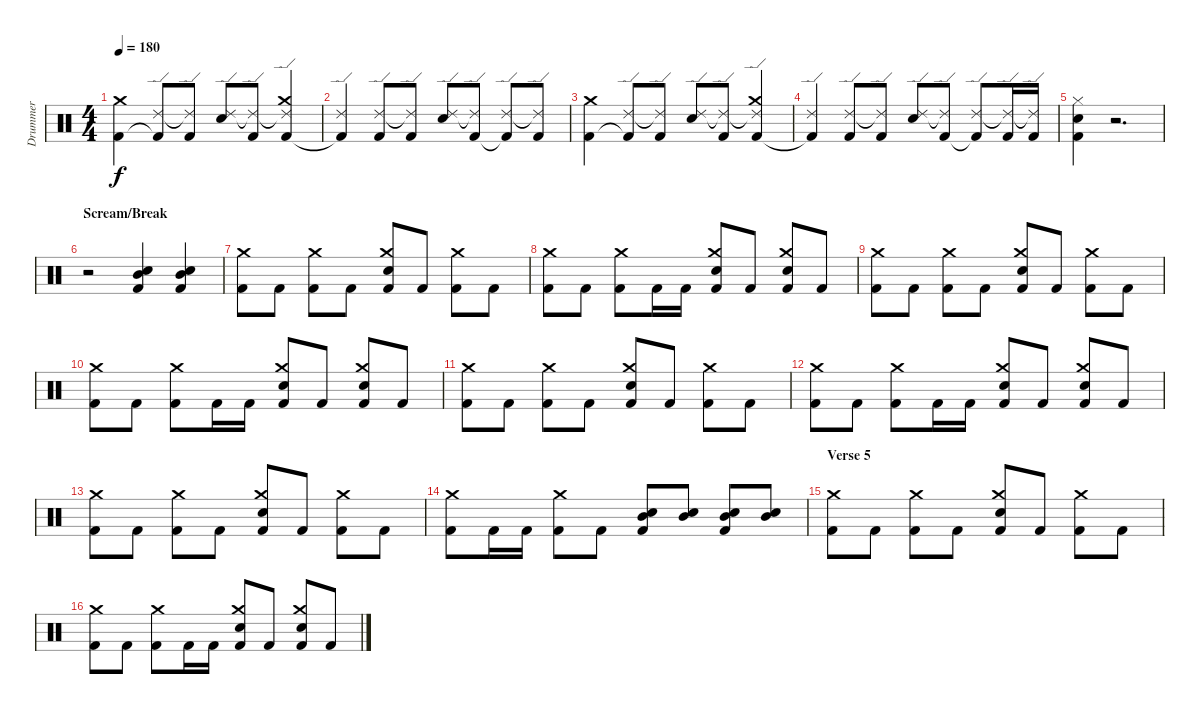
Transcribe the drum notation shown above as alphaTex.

\track ("Drummer" "Drummer") {instrument percussion}
\staff {score}
\articulation defaults
\ts (4 4)
\tempo 180
\clef neutral
\ks c
("Kick (hit) 2" "Crash medium (hit)").4{dy f} ("Kick (hit) 2"{t} "Ride (edge) 2").8 ("Kick (hit) 2" "Ride (edge) 2"{t}).8 ("Snare (hit) 2" "Ride (edge) 2").8 ("Kick (hit) 2" "Ride (edge) 2"{t}).8 ("Kick (hit) 2" "Ride (edge) 2"{t} "Crash medium (hit)").4 |
("Kick (hit) 2"{t} "Ride (edge) 2").4 ("Kick (hit) 2" "Ride (edge) 2").8 ("Kick (hit) 2" "Ride (edge) 2"{t}).8 ("Snare (hit) 2" "Ride (edge) 2").8 ("Kick (hit) 2" "Ride (edge) 2"{t}).8 ("Kick (hit) 2"{t} "Ride (edge) 2").8 ("Kick (hit) 2" "Ride (edge) 2"{t}).8 |
("Kick (hit) 2" "Crash medium (hit)").4 ("Kick (hit) 2"{t} "Ride (edge) 2").8 ("Kick (hit) 2" "Ride (edge) 2"{t}).8 ("Snare (hit) 2" "Ride (edge) 2").8 ("Kick (hit) 2" "Ride (edge) 2"{t}).8 ("Kick (hit) 2" "Ride (edge) 2"{t} "Crash medium (hit)").4 |
("Kick (hit) 2"{t} "Ride (edge) 2").4 ("Kick (hit) 2" "Ride (edge) 2").8 ("Kick (hit) 2" "Ride (edge) 2"{t}).8 ("Snare (hit) 2" "Ride (edge) 2").8 ("Kick (hit) 2" "Ride (edge) 2"{t}).8 ("Kick (hit) 2"{t} "Ride (edge) 2").8 ("Kick (hit) 2" "Ride (edge) 2"{t}).16 ("Kick (hit) 2" "Ride (edge) 2"{t}).16 |
("Kick (hit) 2" "Electric Snare (hit)" "Hi-Hat (closed)").4 r.2{d} |
\section ("" "Scream/Break")
r.2 ("Kick (hit) 2" "Snare (hit) 2" "Mid Tom (hit)").4 ("Kick (hit) 2" "Snare (hit) 2" "Mid Tom (hit)").4 |
("Kick (hit) 2" "Crash medium (hit)").8 "Kick (hit) 2".8 ("Kick (hit) 2" "Crash medium (hit)").8 "Kick (hit) 2".8 ("Kick (hit) 2" "Snare (hit) 2" "Crash medium (hit)").8 "Kick (hit) 2".8 ("Kick (hit) 2" "Crash medium (hit)").8 "Kick (hit) 2".8 |
("Kick (hit) 2" "Crash medium (hit)").8 "Kick (hit) 2".8 ("Kick (hit) 2" "Crash medium (hit)").8 "Kick (hit) 2".16 "Kick (hit) 2".16 ("Kick (hit) 2" "Snare (hit) 2" "Crash medium (hit)").8 "Kick (hit) 2".8 ("Kick (hit) 2" "Snare (hit) 2" "Crash medium (hit)").8 "Kick (hit) 2".8 |
("Kick (hit) 2" "Crash medium (hit)").8 "Kick (hit) 2".8 ("Kick (hit) 2" "Crash medium (hit)").8 "Kick (hit) 2".8 ("Kick (hit) 2" "Snare (hit) 2" "Crash medium (hit)").8 "Kick (hit) 2".8 ("Kick (hit) 2" "Crash medium (hit)").8 "Kick (hit) 2".8 |
("Kick (hit) 2" "Crash medium (hit)").8 "Kick (hit) 2".8 ("Kick (hit) 2" "Crash medium (hit)").8 "Kick (hit) 2".16 "Kick (hit) 2".16 ("Kick (hit) 2" "Snare (hit) 2" "Crash medium (hit)").8 "Kick (hit) 2".8 ("Kick (hit) 2" "Snare (hit) 2" "Crash medium (hit)").8 "Kick (hit) 2".8 |
("Kick (hit) 2" "Crash medium (hit)").8 "Kick (hit) 2".8 ("Kick (hit) 2" "Crash medium (hit)").8 "Kick (hit) 2".8 ("Kick (hit) 2" "Snare (hit) 2" "Crash medium (hit)").8 "Kick (hit) 2".8 ("Kick (hit) 2" "Crash medium (hit)").8 "Kick (hit) 2".8 |
("Kick (hit) 2" "Crash medium (hit)").8 "Kick (hit) 2".8 ("Kick (hit) 2" "Crash medium (hit)").8 "Kick (hit) 2".16 "Kick (hit) 2".16 ("Kick (hit) 2" "Snare (hit) 2" "Crash medium (hit)").8 "Kick (hit) 2".8 ("Kick (hit) 2" "Snare (hit) 2" "Crash medium (hit)").8 "Kick (hit) 2".8 |
("Kick (hit) 2" "Crash medium (hit)").8 "Kick (hit) 2".8 ("Kick (hit) 2" "Crash medium (hit)").8 "Kick (hit) 2".8 ("Kick (hit) 2" "Snare (hit) 2" "Crash medium (hit)").8 "Kick (hit) 2".8 ("Kick (hit) 2" "Crash medium (hit)").8 "Kick (hit) 2".8 |
("Kick (hit) 2" "Crash medium (hit)").8 "Kick (hit) 2".16 "Kick (hit) 2".16 ("Kick (hit) 2" "Crash medium (hit)").8 "Kick (hit) 2".8 ("Kick (hit) 2" "Snare (hit) 2" "Mid Tom (hit)").8 ("Snare (hit) 2" "Mid Tom (hit)").8 ("Kick (hit) 2" "Snare (hit) 2" "Mid Tom (hit)").8 ("Snare (hit) 2" "Mid Tom (hit)").8 |
\section ("" "Verse 5")
("Kick (hit) 2" "Crash medium (hit)").8 "Kick (hit) 2".8 ("Kick (hit) 2" "Crash medium (hit)").8 "Kick (hit) 2".8 ("Kick (hit) 2" "Snare (hit) 2" "Crash medium (hit)").8 "Kick (hit) 2".8 ("Kick (hit) 2" "Crash medium (hit)").8 "Kick (hit) 2".8 |
("Kick (hit) 2" "Crash medium (hit)").8 "Kick (hit) 2".8 ("Kick (hit) 2" "Crash medium (hit)").8 "Kick (hit) 2".16 "Kick (hit) 2".16 ("Kick (hit) 2" "Snare (hit) 2" "Crash medium (hit)").8 "Kick (hit) 2".8 ("Kick (hit) 2" "Snare (hit) 2" "Crash medium (hit)").8 "Kick (hit) 2".8
